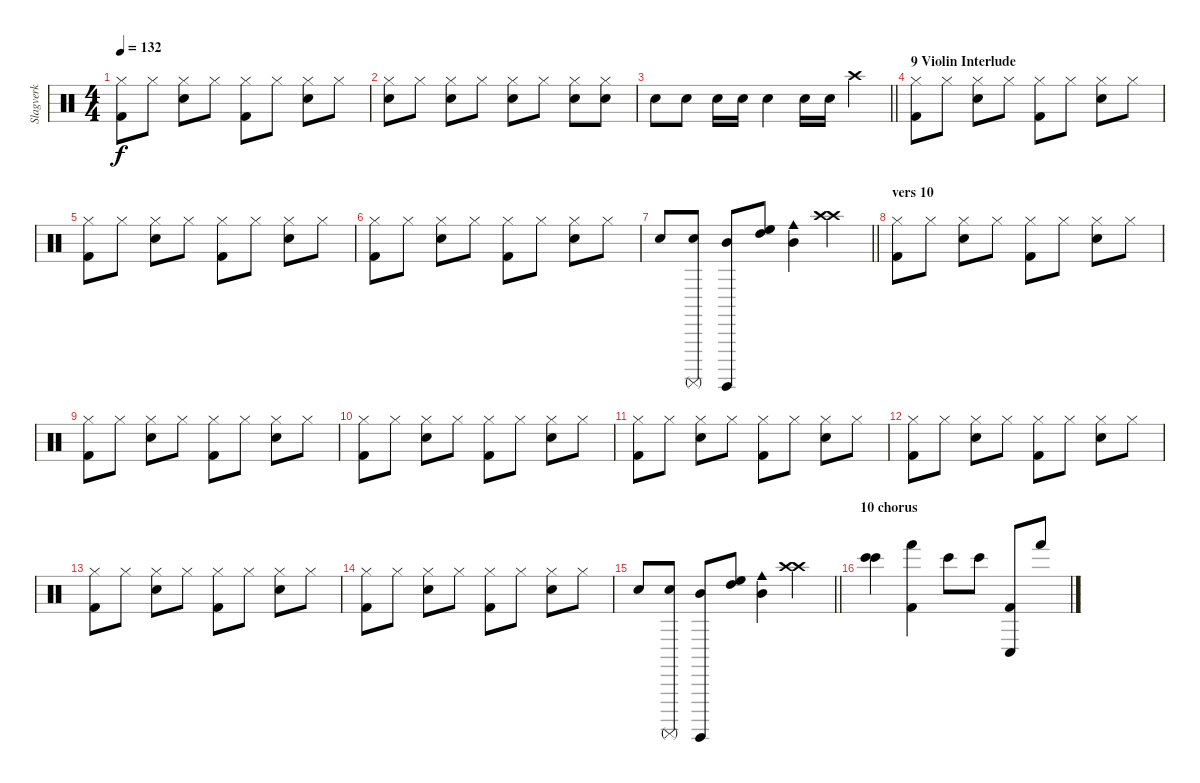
\track ("Slagverk" "Slagverk") {instrument percussion}
\staff {score}
\articulation defaults
\ts (4 4)
\tempo 132
\clef neutral
\ks c
("Kick (hit) 2" "Hi-Hat (closed)").8{dy f} "Hi-Hat (closed)".8 ("Snare (hit) 2" "Hi-Hat (closed)").8 "Hi-Hat (closed)".8 ("Kick (hit) 2" "Hi-Hat (closed)").8 "Hi-Hat (closed)".8 ("Snare (hit) 2" "Hi-Hat (closed)").8 "Hi-Hat (closed)".8 |
("Snare (hit) 2" "Hi-Hat (closed)").8 "Hi-Hat (closed)".8 ("Snare (hit) 2" "Hi-Hat (closed)").8 "Hi-Hat (closed)".8 ("Snare (hit) 2" "Hi-Hat (closed)").8 "Hi-Hat (closed)".8 ("Snare (hit) 2" "Hi-Hat (closed)").8 ("Snare (hit) 2" "Hi-Hat (closed)").8 |
\barLineRight lightlight "Snare (hit) 2".8 "Snare (hit) 2".8 "Snare (hit) 2".16 "Snare (hit) 2".16 "Snare (hit) 2".4 "Snare (hit) 2".16 "Snare (hit) 2".16 "Crash high (hit)".4
|
\section ("" "9 Violin Interlude")
("Kick (hit) 2" "Hi-Hat (closed)").8 "Hi-Hat (closed)".8 ("Snare (hit) 2" "Hi-Hat (closed)").8 "Hi-Hat (closed)".8 ("Kick (hit) 2" "Hi-Hat (closed)").8 "Hi-Hat (closed)".8 ("Snare (hit) 2" "Hi-Hat (closed)").8 "Hi-Hat (closed)".8 |
("Kick (hit) 2" "Hi-Hat (closed)").8 "Hi-Hat (closed)".8 ("Snare (hit) 2" "Hi-Hat (closed)").8 "Hi-Hat (closed)".8 ("Kick (hit) 2" "Hi-Hat (closed)").8 "Hi-Hat (closed)".8 ("Snare (hit) 2" "Hi-Hat (closed)").8 "Hi-Hat (closed)".8 |
("Kick (hit) 2" "Hi-Hat (closed)").8 "Hi-Hat (closed)".8 ("Snare (hit) 2" "Hi-Hat (closed)").8 "Hi-Hat (closed)".8 ("Kick (hit) 2" "Hi-Hat (closed)").8 "Hi-Hat (closed)".8 ("Snare (hit) 2" "Hi-Hat (closed)").8 "Hi-Hat (closed)".8 |
\barLineRight lightlight "Snare (hit) 2".8
("Snare (hit) 2" "Surdo (mute)").8 ("Surdo (hit)" "Mid Tom (hit)").8 ("High Floor Tom (hit)" "High Tom (hit)").8 ("Cowbell medium (hit)" "Mid Tom (hit)").4 ("Crash high (hit)" "Crash high (hit)").4 |
\section ("" "vers 10")
("Kick (hit) 2" "Hi-Hat (closed)").8 "Hi-Hat (closed)".8 ("Snare (hit) 2" "Hi-Hat (closed)").8 "Hi-Hat (closed)".8 ("Kick (hit) 2" "Hi-Hat (closed)").8 "Hi-Hat (closed)".8 ("Snare (hit) 2" "Hi-Hat (closed)").8 "Hi-Hat (closed)".8 |
("Kick (hit) 2" "Hi-Hat (closed)").8 "Hi-Hat (closed)".8 ("Snare (hit) 2" "Hi-Hat (closed)").8 "Hi-Hat (closed)".8 ("Kick (hit) 2" "Hi-Hat (closed)").8 "Hi-Hat (closed)".8 ("Snare (hit) 2" "Hi-Hat (closed)").8 "Hi-Hat (closed)".8 |
("Kick (hit) 2" "Hi-Hat (closed)").8 "Hi-Hat (closed)".8 ("Snare (hit) 2" "Hi-Hat (closed)").8 "Hi-Hat (closed)".8 ("Kick (hit) 2" "Hi-Hat (closed)").8 "Hi-Hat (closed)".8 ("Snare (hit) 2" "Hi-Hat (closed)").8 "Hi-Hat (closed)".8 |
("Kick (hit) 2" "Hi-Hat (closed)").8 "Hi-Hat (closed)".8 ("Snare (hit) 2" "Hi-Hat (closed)").8 "Hi-Hat (closed)".8 ("Kick (hit) 2" "Hi-Hat (closed)").8 "Hi-Hat (closed)".8 ("Snare (hit) 2" "Hi-Hat (closed)").8 "Hi-Hat (closed)".8 |
("Kick (hit) 2" "Hi-Hat (closed)").8 "Hi-Hat (closed)".8 ("Snare (hit) 2" "Hi-Hat (closed)").8 "Hi-Hat (closed)".8 ("Kick (hit) 2" "Hi-Hat (closed)").8 "Hi-Hat (closed)".8 ("Snare (hit) 2" "Hi-Hat (closed)").8 "Hi-Hat (closed)".8 |
("Kick (hit) 2" "Hi-Hat (closed)").8 "Hi-Hat (closed)".8 ("Snare (hit) 2" "Hi-Hat (closed)").8 "Hi-Hat (closed)".8 ("Kick (hit) 2" "Hi-Hat (closed)").8 "Hi-Hat (closed)".8 ("Snare (hit) 2" "Hi-Hat (closed)").8 "Hi-Hat (closed)".8 |
("Kick (hit) 2" "Hi-Hat (closed)").8 "Hi-Hat (closed)".8 ("Snare (hit) 2" "Hi-Hat (closed)").8 "Hi-Hat (closed)".8 ("Kick (hit) 2" "Hi-Hat (closed)").8 "Hi-Hat (closed)".8 ("Snare (hit) 2" "Hi-Hat (closed)").8 "Hi-Hat (closed)".8 |
\barLineRight lightlight "Snare (hit) 2".8
("Snare (hit) 2" "Surdo (mute)").8 ("Surdo (hit)" "Mid Tom (hit)").8 ("High Floor Tom (hit)" "High Tom (hit)").8 ("Cowbell medium (hit)" "Mid Tom (hit)").4 ("Crash high (hit)" "Crash high (hit)").4 |
\section ("" "10 chorus")
("Bongo High (hit)" "Bongo High (hit)").4 ("Kick (hit) 2" "Hand (hit)").4 "Bongo High (hit)".8 "Bongo High (hit)".8 ("Kick (hit) 2" "Conga low (hit)").8 "Hand (hit)".8
